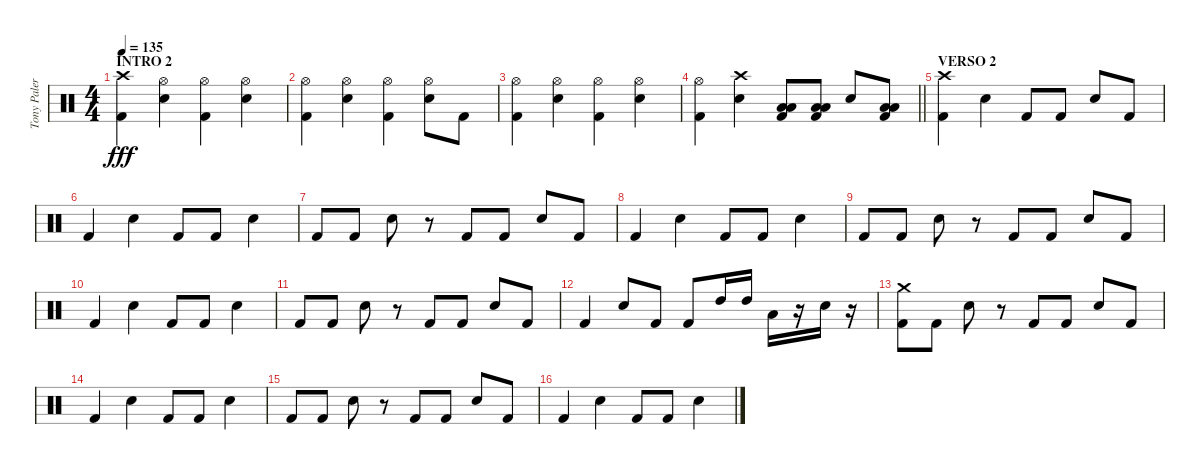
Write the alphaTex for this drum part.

\track ("Tony Palermo" "Tony Paler") {instrument percussion}
\staff {score}
\articulation defaults
\ts (4 4)
\section ("" "INTRO 2")
\tempo 135
\clef neutral
\ks c
("Crash high (hit)" "Kick (hit) 2").4{dy fff} ("Hi-Hat (open)" "Snare (hit) 2").4 ("Hi-Hat (open)" "Kick (hit) 2").4 ("Hi-Hat (open)" "Snare (hit) 2").4 |
("Hi-Hat (open)" "Kick (hit) 2").4 ("Hi-Hat (open)" "Snare (hit) 2").4 ("Hi-Hat (open)" "Kick (hit) 2").4 ("Hi-Hat (open)" "Snare (hit) 2").8 "Kick (hit) 2".8 |
("Hi-Hat (open)" "Kick (hit) 2").4 ("Hi-Hat (open)" "Snare (hit) 2").4 ("Hi-Hat (open)" "Kick (hit) 2").4 ("Hi-Hat (open)" "Snare (hit) 2").4 |
\barLineRight lightlight
("Hi-Hat (open)" "Kick (hit) 2").4 ("Crash high (hit)" "Snare (hit) 2").4 ("Low Tom (hit)" "Low Floor Tom (hit)" "Kick (hit) 2").8 ("Low Tom (hit)" "Low Floor Tom (hit)" "Kick (hit) 2").8 "Snare (hit) 2".8 ("Low Tom (hit)" "Low Floor Tom (hit)" "Kick (hit) 2").8 |
\section ("" "VERSO 2")
("Crash high (hit)" "Kick (hit) 2").4 "Snare (hit) 2".4 "Kick (hit) 2".8 "Kick (hit) 2".8 "Snare (hit) 2".8 "Kick (hit) 2".8 |
"Kick (hit) 2".4 "Snare (hit) 2".4 "Kick (hit) 2".8 "Kick (hit) 2".8 "Snare (hit) 2".4 |
"Kick (hit) 2".8 "Kick (hit) 2".8 "Snare (hit) 2".8 r.8 "Kick (hit) 2".8 "Kick (hit) 2".8 "Snare (hit) 2".8 "Kick (hit) 2".8 |
"Kick (hit) 2".4 "Snare (hit) 2".4 "Kick (hit) 2".8 "Kick (hit) 2".8 "Snare (hit) 2".4 |
"Kick (hit) 2".8 "Kick (hit) 2".8 "Snare (hit) 2".8 r.8 "Kick (hit) 2".8 "Kick (hit) 2".8 "Snare (hit) 2".8 "Kick (hit) 2".8 |
"Kick (hit) 2".4 "Snare (hit) 2".4 "Kick (hit) 2".8 "Kick (hit) 2".8 "Snare (hit) 2".4 |
"Kick (hit) 2".8 "Kick (hit) 2".8 "Snare (hit) 2".8 r.8 "Kick (hit) 2".8 "Kick (hit) 2".8 "Snare (hit) 2".8 "Kick (hit) 2".8 |
"Kick (hit) 2".4 "Snare (hit) 2".8 "Kick (hit) 2".8 "Kick (hit) 2".8 "High Tom (hit)".16 "High Tom (hit)".16 "Low Floor Tom (hit)".16 r.16 "Snare (hit) 2".16 r.16 |
("Crash medium (hit)" "Kick (hit) 2").8 "Kick (hit) 2".8 "Snare (hit) 2".8 r.8 "Kick (hit) 2".8 "Kick (hit) 2".8 "Snare (hit) 2".8 "Kick (hit) 2".8 |
"Kick (hit) 2".4 "Snare (hit) 2".4 "Kick (hit) 2".8 "Kick (hit) 2".8 "Snare (hit) 2".4 |
"Kick (hit) 2".8 "Kick (hit) 2".8 "Snare (hit) 2".8 r.8 "Kick (hit) 2".8 "Kick (hit) 2".8 "Snare (hit) 2".8 "Kick (hit) 2".8 |
"Kick (hit) 2".4 "Snare (hit) 2".4 "Kick (hit) 2".8 "Kick (hit) 2".8 "Snare (hit) 2".4
